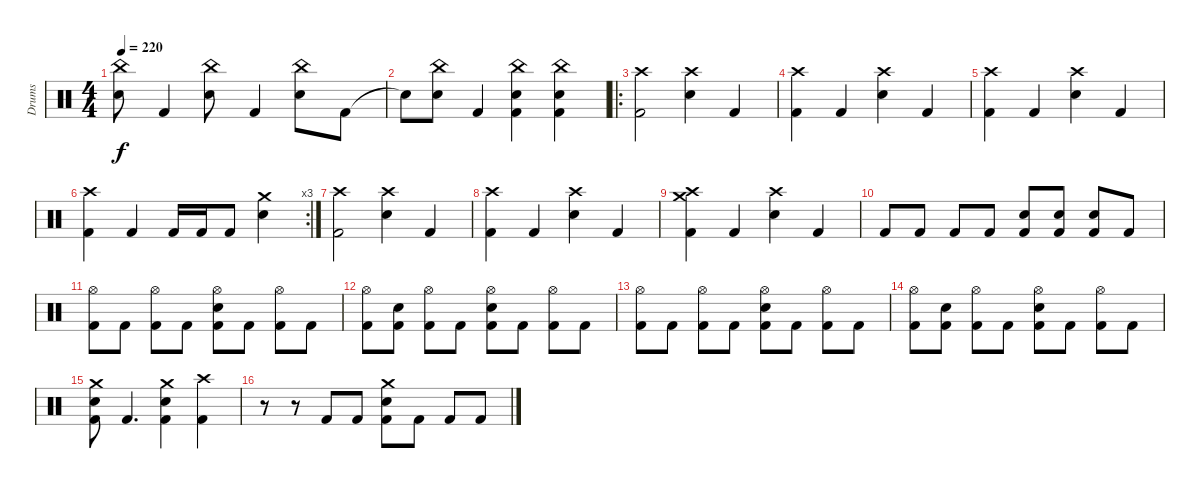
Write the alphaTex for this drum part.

\track ("Drums" "Drums") {instrument percussion}
\staff {score}
\articulation defaults
\ts (4 4)
\tempo 220
\clef neutral
\ks c
("China (hit)" "Snare (hit) 2").8{dy f} "Kick (hit) 2".4 ("China (hit)" "Snare (hit) 2").8 "Kick (hit) 2".4 ("China (hit)" "Snare (hit) 2").8 "Kick (hit) 2".8 |
"Snare (hit)"{t}.8 ("China (hit)" "Snare (hit) 2").8 "Kick (hit) 2".4 ("China (hit)" "Snare (hit) 2" "Kick (hit) 2").4 ("China (hit)" "Snare (hit) 2" "Kick (hit) 2").4 |
\ro
("Crash high (hit)" "Kick (hit) 2").2 ("Crash high (hit)" "Snare (hit) 2").4 "Kick (hit) 2".4 |
("Crash high (hit)" "Kick (hit) 2").4 "Kick (hit) 2".4 ("Crash high (hit)" "Snare (hit) 2").4 "Kick (hit) 2".4 |
("Crash high (hit)" "Kick (hit) 2").4 "Kick (hit) 2".4 ("Crash high (hit)" "Snare (hit) 2").4 "Kick (hit) 2".4 |
\rc 3
("Crash high (hit)" "Kick (hit) 2").4 "Kick (hit) 2".4 "Kick (hit) 2".16 "Kick (hit) 2".16 "Kick (hit) 2".8 ("Crash medium (hit)" "Snare (hit) 2").4 |
("Crash high (hit)" "Kick (hit) 2").2 ("Crash high (hit)" "Snare (hit) 2").4 "Kick (hit) 2".4 |
("Crash high (hit)" "Kick (hit) 2").4 "Kick (hit) 2".4 ("Crash high (hit)" "Snare (hit) 2").4 "Kick (hit) 2".4 |
("Crash high (hit)" "Crash medium (hit)" "Kick (hit) 2").4 "Kick (hit) 2".4 ("Crash high (hit)" "Snare (hit) 2").4 "Kick (hit) 2".4 |
"Kick (hit) 2".8 "Kick (hit) 2".8 "Kick (hit) 2".8 "Kick (hit) 2".8 ("Snare (hit) 2" "Kick (hit) 2").8 ("Snare (hit) 2" "Kick (hit) 2").8 ("Snare (hit) 2" "Kick (hit) 2").8 "Kick (hit) 2".8 |
("Hi-Hat (open)" "Kick (hit) 2").8 "Kick (hit) 2".8 ("Hi-Hat (open)" "Kick (hit) 2").8 "Kick (hit) 2".8 ("Hi-Hat (open)" "Snare (hit) 2" "Kick (hit) 2").8 "Kick (hit) 2".8 ("Hi-Hat (open)" "Kick (hit) 2").8 "Kick (hit) 2".8 |
("Hi-Hat (open)" "Kick (hit) 2").8 ("Snare (hit) 2" "Kick (hit) 2").8 ("Hi-Hat (open)" "Kick (hit) 2").8 "Kick (hit) 2".8 ("Hi-Hat (open)" "Snare (hit) 2" "Kick (hit) 2").8 "Kick (hit) 2".8 ("Hi-Hat (open)" "Kick (hit) 2").8 "Kick (hit) 2".8 |
("Hi-Hat (open)" "Kick (hit) 2").8 "Kick (hit) 2".8 ("Hi-Hat (open)" "Kick (hit) 2").8 "Kick (hit) 2".8 ("Hi-Hat (open)" "Snare (hit) 2" "Kick (hit) 2").8 "Kick (hit) 2".8 ("Hi-Hat (open)" "Kick (hit) 2").8 "Kick (hit) 2".8 |
("Hi-Hat (open)" "Kick (hit) 2").8 ("Snare (hit) 2" "Kick (hit) 2").8 ("Hi-Hat (open)" "Kick (hit) 2").8 "Kick (hit) 2".8 ("Hi-Hat (open)" "Snare (hit) 2" "Kick (hit) 2").8 "Kick (hit) 2".8 ("Hi-Hat (open)" "Kick (hit) 2").8 "Kick (hit) 2".8 |
("Crash medium (hit)" "Snare (hit) 2" "Kick (hit) 2").8 "Kick (hit) 2".4{d} ("Crash medium (hit)" "Snare (hit) 2" "Kick (hit) 2").4 ("Crash high (hit)" "Kick (hit) 2").4 |
r.8 r.8 "Kick (hit) 2".8 "Kick (hit) 2".8 ("Crash medium (hit)" "Snare (hit) 2" "Kick (hit) 2").8 "Kick (hit) 2".8 "Kick (hit) 2".8 "Kick (hit) 2".8
